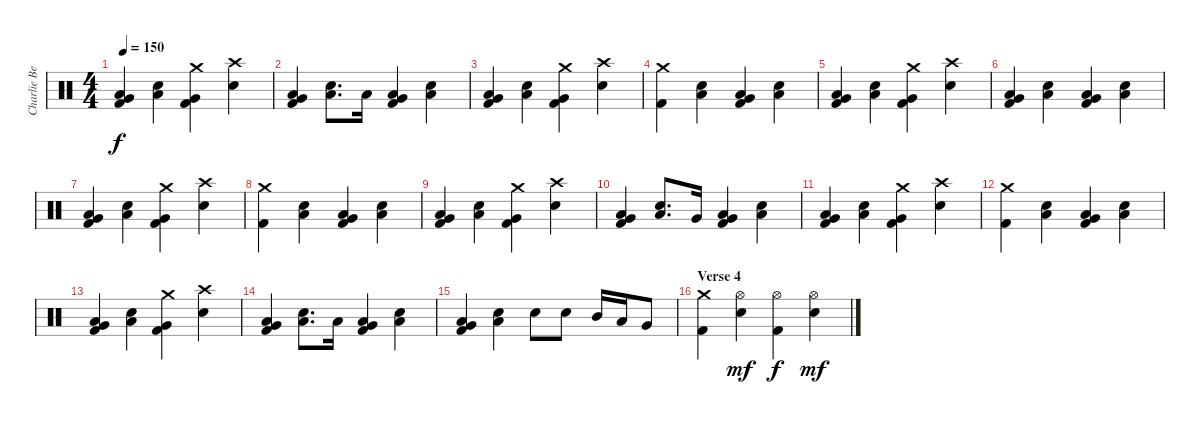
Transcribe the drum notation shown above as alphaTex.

\track ("Charlie Benante" "Charlie Be") {instrument percussion}
\staff {score}
\articulation defaults
\ts (4 4)
\tempo 150
\clef neutral
\ks c
("Kick (hit) 2" "Low Tom (hit)" "Very Low Tom (hit)").4{dy f} ("Snare (hit) 2" "Low Tom (hit)").4 ("Kick (hit) 2" "Crash medium (hit)" "Very Low Tom (hit)").4 ("Crash high (hit)" "Snare (hit) 2").4 |
("Kick (hit) 2" "Low Tom (hit)" "Very Low Tom (hit)").4 ("Snare (hit) 2" "Low Tom (hit)").8{d} "Low Tom (hit)".16 ("Kick (hit) 2" "Low Tom (hit)" "Very Low Tom (hit)").4 ("Snare (hit) 2" "Low Tom (hit)").4 |
("Kick (hit) 2" "Low Tom (hit)" "Very Low Tom (hit)").4 ("Snare (hit) 2" "Low Tom (hit)").4 ("Kick (hit) 2" "Crash medium (hit)" "Very Low Tom (hit)").4 ("Crash high (hit)" "Snare (hit) 2").4 |
("Kick (hit) 2" "Crash medium (hit)").4 ("Snare (hit) 2" "Low Tom (hit)").4 ("Kick (hit) 2" "Low Tom (hit)" "Very Low Tom (hit)").4 ("Snare (hit) 2" "Low Tom (hit)").4 |
("Kick (hit) 2" "Low Tom (hit)" "Very Low Tom (hit)").4 ("Snare (hit) 2" "Low Tom (hit)").4 ("Kick (hit) 2" "Crash medium (hit)" "Very Low Tom (hit)").4 ("Crash high (hit)" "Snare (hit) 2").4 |
("Kick (hit) 2" "Low Tom (hit)" "Very Low Tom (hit)").4 ("Snare (hit) 2" "Low Tom (hit)").4 ("Kick (hit) 2" "Low Tom (hit)" "Very Low Tom (hit)").4 ("Snare (hit) 2" "Low Tom (hit)").4 |
("Kick (hit) 2" "Low Tom (hit)" "Very Low Tom (hit)").4 ("Snare (hit) 2" "Low Tom (hit)").4 ("Kick (hit) 2" "Crash medium (hit)" "Very Low Tom (hit)").4 ("Crash high (hit)" "Snare (hit) 2").4 |
("Kick (hit) 2" "Crash medium (hit)").4 ("Snare (hit) 2" "Low Tom (hit)").4 ("Kick (hit) 2" "Low Tom (hit)" "Very Low Tom (hit)").4 ("Snare (hit) 2" "Low Tom (hit)").4 |
("Kick (hit) 2" "Low Tom (hit)" "Very Low Tom (hit)").4 ("Snare (hit) 2" "Low Tom (hit)").4 ("Kick (hit) 2" "Crash medium (hit)" "Very Low Tom (hit)").4 ("Crash high (hit)" "Snare (hit) 2").4 |
("Kick (hit) 2" "Low Tom (hit)" "Very Low Tom (hit)").4 ("Snare (hit) 2" "Low Tom (hit)").8{d} "Very Low Tom (hit)".16 ("Kick (hit) 2" "Low Tom (hit)" "Very Low Tom (hit)").4 ("Snare (hit) 2" "Low Tom (hit)").4 |
("Kick (hit) 2" "Low Tom (hit)" "Very Low Tom (hit)").4 ("Snare (hit) 2" "Low Tom (hit)").4 ("Kick (hit) 2" "Crash medium (hit)" "Very Low Tom (hit)").4 ("Crash high (hit)" "Snare (hit) 2").4 |
("Kick (hit) 2" "Crash medium (hit)").4 ("Snare (hit) 2" "Low Tom (hit)").4 ("Kick (hit) 2" "Low Tom (hit)" "Very Low Tom (hit)").4 ("Snare (hit) 2" "Low Tom (hit)").4 |
("Kick (hit) 2" "Low Tom (hit)" "Very Low Tom (hit)").4 ("Snare (hit) 2" "Low Tom (hit)").4 ("Kick (hit) 2" "Crash medium (hit)" "Very Low Tom (hit)").4 ("Crash high (hit)" "Snare (hit) 2").4 |
("Kick (hit) 2" "Low Tom (hit)" "Very Low Tom (hit)").4 ("Snare (hit) 2" "Low Tom (hit)").8{d} "Low Tom (hit)".16 ("Kick (hit) 2" "Low Tom (hit)" "Very Low Tom (hit)").4 ("Snare (hit) 2" "Low Tom (hit)").4 |
("Kick (hit) 2" "Low Tom (hit)" "Very Low Tom (hit)").4 ("Snare (hit) 2" "Low Tom (hit)").4 "Snare (hit) 2".8 "Snare (hit) 2".8 "Mid Tom (hit)".16 "Low Tom (hit)".16 "Very Low Tom (hit)".8 |
\section ("" "Verse 4")
("Kick (hit) 2" "Crash medium (hit)").4 ("Hi-Hat (open)" "Snare (hit) 2").4{dy mf} ("Kick (hit) 2" "Hi-Hat (open)").4{dy f} ("Hi-Hat (open)" "Snare (hit) 2").4{dy mf}
